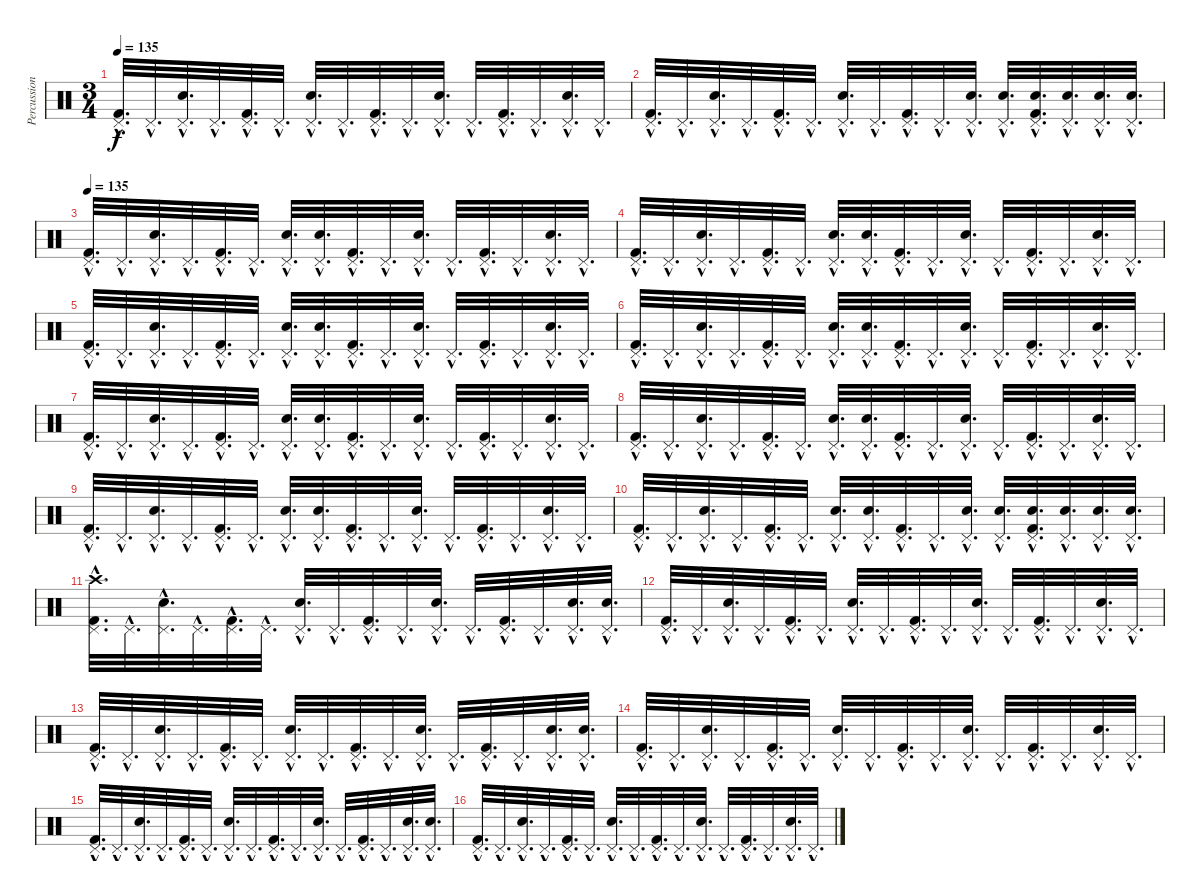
\track ("Percussion" "Percussion") {instrument percussion}
\staff {score}
\articulation defaults
\ts (3 4)
\tempo 135
\clef neutral
\ks c
("Kick (hit) 2"{hac} "Pedal Hi-Hat (hit)"{hac}).32{d dy f} "Pedal Hi-Hat (hit)"{hac}.32{d} ("Pedal Hi-Hat (hit)"{hac} "Electric Snare (hit)"{hac}).32{d} "Pedal Hi-Hat (hit)"{hac}.32{d} ("Kick (hit) 2"{hac} "Pedal Hi-Hat (hit)"{hac}).32{d} "Pedal Hi-Hat (hit)"{hac}.32{d} ("Pedal Hi-Hat (hit)"{hac} "Electric Snare (hit)"{hac}).32{d} "Pedal Hi-Hat (hit)"{hac}.32{d} ("Kick (hit) 2"{hac} "Pedal Hi-Hat (hit)"{hac}).32{d} "Pedal Hi-Hat (hit)"{hac}.32{d} ("Pedal Hi-Hat (hit)"{hac} "Electric Snare (hit)"{hac}).32{d} "Pedal Hi-Hat (hit)"{hac}.32{d} ("Kick (hit) 2"{hac} "Pedal Hi-Hat (hit)"{hac}).32{d} "Pedal Hi-Hat (hit)"{hac}.32{d} ("Pedal Hi-Hat (hit)"{hac} "Electric Snare (hit)"{hac}).32{d} "Pedal Hi-Hat (hit)"{hac}.32{d} |
("Kick (hit) 2"{hac} "Pedal Hi-Hat (hit)"{hac}).32{d} "Pedal Hi-Hat (hit)"{hac}.32{d} ("Pedal Hi-Hat (hit)"{hac} "Electric Snare (hit)"{hac}).32{d} "Pedal Hi-Hat (hit)"{hac}.32{d} ("Kick (hit) 2"{hac} "Pedal Hi-Hat (hit)"{hac}).32{d} "Pedal Hi-Hat (hit)"{hac}.32{d} ("Pedal Hi-Hat (hit)"{hac} "Electric Snare (hit)"{hac}).32{d} "Pedal Hi-Hat (hit)"{hac}.32{d} ("Kick (hit) 2"{hac} "Pedal Hi-Hat (hit)"{hac}).32{d} "Pedal Hi-Hat (hit)"{hac}.32{d} ("Pedal Hi-Hat (hit)"{hac} "Electric Snare (hit)"{hac}).32{d} ("Pedal Hi-Hat (hit)"{hac} "Electric Snare (hit)"{hac}).32{d} ("Kick (hit) 2"{hac} "Pedal Hi-Hat (hit)"{hac} "Electric Snare (hit)"{hac}).32{d} ("Pedal Hi-Hat (hit)"{hac} "Electric Snare (hit)"{hac}).32{d} ("Pedal Hi-Hat (hit)"{hac} "Electric Snare (hit)"{hac}).32{d} ("Pedal Hi-Hat (hit)"{hac} "Electric Snare (hit)"{hac}).32{d} |
\tempo 135
("Kick (hit) 2"{hac} "Pedal Hi-Hat (hit)"{hac}).32{d} "Pedal Hi-Hat (hit)"{hac}.32{d} ("Pedal Hi-Hat (hit)"{hac} "Electric Snare (hit)"{hac}).32{d} "Pedal Hi-Hat (hit)"{hac}.32{d} ("Kick (hit) 2"{hac} "Pedal Hi-Hat (hit)"{hac}).32{d} "Pedal Hi-Hat (hit)"{hac}.32{d} ("Pedal Hi-Hat (hit)"{hac} "Electric Snare (hit)"{hac}).32{d} ("Pedal Hi-Hat (hit)"{hac} "Electric Snare (hit)"{hac}).32{d} ("Kick (hit) 2"{hac} "Pedal Hi-Hat (hit)"{hac}).32{d} "Pedal Hi-Hat (hit)"{hac}.32{d} ("Pedal Hi-Hat (hit)"{hac} "Electric Snare (hit)"{hac}).32{d} "Pedal Hi-Hat (hit)"{hac}.32{d} ("Kick (hit) 2"{hac} "Pedal Hi-Hat (hit)"{hac}).32{d} "Pedal Hi-Hat (hit)"{hac}.32{d} ("Pedal Hi-Hat (hit)"{hac} "Electric Snare (hit)"{hac}).32{d} "Pedal Hi-Hat (hit)"{hac}.32{d} |
("Kick (hit) 2"{hac} "Pedal Hi-Hat (hit)"{hac}).32{d} "Pedal Hi-Hat (hit)"{hac}.32{d} ("Pedal Hi-Hat (hit)"{hac} "Electric Snare (hit)"{hac}).32{d} "Pedal Hi-Hat (hit)"{hac}.32{d} ("Kick (hit) 2"{hac} "Pedal Hi-Hat (hit)"{hac}).32{d} "Pedal Hi-Hat (hit)"{hac}.32{d} ("Pedal Hi-Hat (hit)"{hac} "Electric Snare (hit)"{hac}).32{d} ("Pedal Hi-Hat (hit)"{hac} "Electric Snare (hit)"{hac}).32{d} ("Kick (hit) 2"{hac} "Pedal Hi-Hat (hit)"{hac}).32{d} "Pedal Hi-Hat (hit)"{hac}.32{d} ("Pedal Hi-Hat (hit)"{hac} "Electric Snare (hit)"{hac}).32{d} "Pedal Hi-Hat (hit)"{hac}.32{d} ("Kick (hit) 2"{hac} "Pedal Hi-Hat (hit)"{hac}).32{d} "Pedal Hi-Hat (hit)"{hac}.32{d} ("Pedal Hi-Hat (hit)"{hac} "Electric Snare (hit)"{hac}).32{d} "Pedal Hi-Hat (hit)"{hac}.32{d} |
("Kick (hit) 2"{hac} "Pedal Hi-Hat (hit)"{hac}).32{d} "Pedal Hi-Hat (hit)"{hac}.32{d} ("Pedal Hi-Hat (hit)"{hac} "Electric Snare (hit)"{hac}).32{d} "Pedal Hi-Hat (hit)"{hac}.32{d} ("Kick (hit) 2"{hac} "Pedal Hi-Hat (hit)"{hac}).32{d} "Pedal Hi-Hat (hit)"{hac}.32{d} ("Pedal Hi-Hat (hit)"{hac} "Electric Snare (hit)"{hac}).32{d} ("Pedal Hi-Hat (hit)"{hac} "Electric Snare (hit)"{hac}).32{d} ("Kick (hit) 2"{hac} "Pedal Hi-Hat (hit)"{hac}).32{d} "Pedal Hi-Hat (hit)"{hac}.32{d} ("Pedal Hi-Hat (hit)"{hac} "Electric Snare (hit)"{hac}).32{d} "Pedal Hi-Hat (hit)"{hac}.32{d} ("Kick (hit) 2"{hac} "Pedal Hi-Hat (hit)"{hac}).32{d} "Pedal Hi-Hat (hit)"{hac}.32{d} ("Pedal Hi-Hat (hit)"{hac} "Electric Snare (hit)"{hac}).32{d} "Pedal Hi-Hat (hit)"{hac}.32{d} |
("Kick (hit) 2"{hac} "Pedal Hi-Hat (hit)"{hac}).32{d} "Pedal Hi-Hat (hit)"{hac}.32{d} ("Pedal Hi-Hat (hit)"{hac} "Electric Snare (hit)"{hac}).32{d} "Pedal Hi-Hat (hit)"{hac}.32{d} ("Kick (hit) 2"{hac} "Pedal Hi-Hat (hit)"{hac}).32{d} "Pedal Hi-Hat (hit)"{hac}.32{d} ("Pedal Hi-Hat (hit)"{hac} "Electric Snare (hit)"{hac}).32{d} ("Pedal Hi-Hat (hit)"{hac} "Electric Snare (hit)"{hac}).32{d} ("Kick (hit) 2"{hac} "Pedal Hi-Hat (hit)"{hac}).32{d} "Pedal Hi-Hat (hit)"{hac}.32{d} ("Pedal Hi-Hat (hit)"{hac} "Electric Snare (hit)"{hac}).32{d} "Pedal Hi-Hat (hit)"{hac}.32{d} ("Kick (hit) 2"{hac} "Pedal Hi-Hat (hit)"{hac}).32{d} "Pedal Hi-Hat (hit)"{hac}.32{d} ("Pedal Hi-Hat (hit)"{hac} "Electric Snare (hit)"{hac}).32{d} "Pedal Hi-Hat (hit)"{hac}.32{d} |
("Kick (hit) 2"{hac} "Pedal Hi-Hat (hit)"{hac}).32{d} "Pedal Hi-Hat (hit)"{hac}.32{d} ("Pedal Hi-Hat (hit)"{hac} "Electric Snare (hit)"{hac}).32{d} "Pedal Hi-Hat (hit)"{hac}.32{d} ("Kick (hit) 2"{hac} "Pedal Hi-Hat (hit)"{hac}).32{d} "Pedal Hi-Hat (hit)"{hac}.32{d} ("Pedal Hi-Hat (hit)"{hac} "Electric Snare (hit)"{hac}).32{d} ("Pedal Hi-Hat (hit)"{hac} "Electric Snare (hit)"{hac}).32{d} ("Kick (hit) 2"{hac} "Pedal Hi-Hat (hit)"{hac}).32{d} "Pedal Hi-Hat (hit)"{hac}.32{d} ("Pedal Hi-Hat (hit)"{hac} "Electric Snare (hit)"{hac}).32{d} "Pedal Hi-Hat (hit)"{hac}.32{d} ("Kick (hit) 2"{hac} "Pedal Hi-Hat (hit)"{hac}).32{d} "Pedal Hi-Hat (hit)"{hac}.32{d} ("Pedal Hi-Hat (hit)"{hac} "Electric Snare (hit)"{hac}).32{d} "Pedal Hi-Hat (hit)"{hac}.32{d} |
("Kick (hit) 2"{hac} "Pedal Hi-Hat (hit)"{hac}).32{d} "Pedal Hi-Hat (hit)"{hac}.32{d} ("Pedal Hi-Hat (hit)"{hac} "Electric Snare (hit)"{hac}).32{d} "Pedal Hi-Hat (hit)"{hac}.32{d} ("Kick (hit) 2"{hac} "Pedal Hi-Hat (hit)"{hac}).32{d} "Pedal Hi-Hat (hit)"{hac}.32{d} ("Pedal Hi-Hat (hit)"{hac} "Electric Snare (hit)"{hac}).32{d} ("Pedal Hi-Hat (hit)"{hac} "Electric Snare (hit)"{hac}).32{d} ("Kick (hit) 2"{hac} "Pedal Hi-Hat (hit)"{hac}).32{d} "Pedal Hi-Hat (hit)"{hac}.32{d} ("Pedal Hi-Hat (hit)"{hac} "Electric Snare (hit)"{hac}).32{d} "Pedal Hi-Hat (hit)"{hac}.32{d} ("Kick (hit) 2"{hac} "Pedal Hi-Hat (hit)"{hac}).32{d} "Pedal Hi-Hat (hit)"{hac}.32{d} ("Pedal Hi-Hat (hit)"{hac} "Electric Snare (hit)"{hac}).32{d} "Pedal Hi-Hat (hit)"{hac}.32{d} |
("Kick (hit) 2"{hac} "Pedal Hi-Hat (hit)"{hac}).32{d} "Pedal Hi-Hat (hit)"{hac}.32{d} ("Pedal Hi-Hat (hit)"{hac} "Electric Snare (hit)"{hac}).32{d} "Pedal Hi-Hat (hit)"{hac}.32{d} ("Kick (hit) 2"{hac} "Pedal Hi-Hat (hit)"{hac}).32{d} "Pedal Hi-Hat (hit)"{hac}.32{d} ("Pedal Hi-Hat (hit)"{hac} "Electric Snare (hit)"{hac}).32{d} ("Pedal Hi-Hat (hit)"{hac} "Electric Snare (hit)"{hac}).32{d} ("Kick (hit) 2"{hac} "Pedal Hi-Hat (hit)"{hac}).32{d} "Pedal Hi-Hat (hit)"{hac}.32{d} ("Pedal Hi-Hat (hit)"{hac} "Electric Snare (hit)"{hac}).32{d} "Pedal Hi-Hat (hit)"{hac}.32{d} ("Kick (hit) 2"{hac} "Pedal Hi-Hat (hit)"{hac}).32{d} "Pedal Hi-Hat (hit)"{hac}.32{d} ("Pedal Hi-Hat (hit)"{hac} "Electric Snare (hit)"{hac}).32{d} "Pedal Hi-Hat (hit)"{hac}.32{d} |
("Kick (hit) 2"{hac} "Pedal Hi-Hat (hit)"{hac}).32{d} "Pedal Hi-Hat (hit)"{hac}.32{d} ("Pedal Hi-Hat (hit)"{hac} "Electric Snare (hit)"{hac}).32{d} "Pedal Hi-Hat (hit)"{hac}.32{d} ("Kick (hit) 2"{hac} "Pedal Hi-Hat (hit)"{hac}).32{d} "Pedal Hi-Hat (hit)"{hac}.32{d} ("Pedal Hi-Hat (hit)"{hac} "Electric Snare (hit)"{hac}).32{d} ("Pedal Hi-Hat (hit)"{hac} "Electric Snare (hit)"{hac}).32{d} ("Kick (hit) 2"{hac} "Pedal Hi-Hat (hit)"{hac}).32{d} "Pedal Hi-Hat (hit)"{hac}.32{d} ("Pedal Hi-Hat (hit)"{hac} "Electric Snare (hit)"{hac}).32{d} ("Pedal Hi-Hat (hit)"{hac} "Electric Snare (hit)"{hac}).32{d} ("Kick (hit) 2"{hac} "Pedal Hi-Hat (hit)"{hac} "Electric Snare (hit)"{hac}).32{d} ("Pedal Hi-Hat (hit)"{hac} "Electric Snare (hit)"{hac}).32{d} ("Pedal Hi-Hat (hit)"{hac} "Electric Snare (hit)"{hac}).32{d} ("Pedal Hi-Hat (hit)"{hac} "Electric Snare (hit)"{hac}).32{d} |
("Kick (hit) 2"{hac} "Pedal Hi-Hat (hit)"{hac} "Crash high (hit)"{hac}).32{d} "Pedal Hi-Hat (hit)"{hac}.32{d} ("Pedal Hi-Hat (hit)"{hac} "Electric Snare (hit)"{hac}).32{d} "Pedal Hi-Hat (hit)"{hac}.32{d} ("Kick (hit) 2"{hac} "Pedal Hi-Hat (hit)"{hac}).32{d} "Pedal Hi-Hat (hit)"{hac}.32{d} ("Pedal Hi-Hat (hit)"{hac} "Electric Snare (hit)"{hac}).32{d} "Pedal Hi-Hat (hit)"{hac}.32{d} ("Kick (hit) 2"{hac} "Pedal Hi-Hat (hit)"{hac}).32{d} "Pedal Hi-Hat (hit)"{hac}.32{d} ("Pedal Hi-Hat (hit)"{hac} "Electric Snare (hit)"{hac}).32{d} "Pedal Hi-Hat (hit)"{hac}.32{d} ("Kick (hit) 2"{hac} "Pedal Hi-Hat (hit)"{hac}).32{d} "Pedal Hi-Hat (hit)"{hac}.32{d} ("Pedal Hi-Hat (hit)"{hac} "Electric Snare (hit)"{hac}).32{d} ("Pedal Hi-Hat (hit)"{hac} "Electric Snare (hit)"{hac}).32{d} |
("Kick (hit) 2"{hac} "Pedal Hi-Hat (hit)"{hac}).32{d} "Pedal Hi-Hat (hit)"{hac}.32{d} ("Pedal Hi-Hat (hit)"{hac} "Electric Snare (hit)"{hac}).32{d} "Pedal Hi-Hat (hit)"{hac}.32{d} ("Kick (hit) 2"{hac} "Pedal Hi-Hat (hit)"{hac}).32{d} "Pedal Hi-Hat (hit)"{hac}.32{d} ("Pedal Hi-Hat (hit)"{hac} "Electric Snare (hit)"{hac}).32{d} "Pedal Hi-Hat (hit)"{hac}.32{d} ("Kick (hit) 2"{hac} "Pedal Hi-Hat (hit)"{hac}).32{d} "Pedal Hi-Hat (hit)"{hac}.32{d} ("Pedal Hi-Hat (hit)"{hac} "Electric Snare (hit)"{hac}).32{d} "Pedal Hi-Hat (hit)"{hac}.32{d} ("Kick (hit) 2"{hac} "Pedal Hi-Hat (hit)"{hac}).32{d} "Pedal Hi-Hat (hit)"{hac}.32{d} ("Pedal Hi-Hat (hit)"{hac} "Electric Snare (hit)"{hac}).32{d} "Pedal Hi-Hat (hit)"{hac}.32{d} |
("Kick (hit) 2"{hac} "Pedal Hi-Hat (hit)"{hac}).32{d} "Pedal Hi-Hat (hit)"{hac}.32{d} ("Pedal Hi-Hat (hit)"{hac} "Electric Snare (hit)"{hac}).32{d} "Pedal Hi-Hat (hit)"{hac}.32{d} ("Kick (hit) 2"{hac} "Pedal Hi-Hat (hit)"{hac}).32{d} "Pedal Hi-Hat (hit)"{hac}.32{d} ("Pedal Hi-Hat (hit)"{hac} "Electric Snare (hit)"{hac}).32{d} "Pedal Hi-Hat (hit)"{hac}.32{d} ("Kick (hit) 2"{hac} "Pedal Hi-Hat (hit)"{hac}).32{d} "Pedal Hi-Hat (hit)"{hac}.32{d} ("Pedal Hi-Hat (hit)"{hac} "Electric Snare (hit)"{hac}).32{d} "Pedal Hi-Hat (hit)"{hac}.32{d} ("Kick (hit) 2"{hac} "Pedal Hi-Hat (hit)"{hac}).32{d} "Pedal Hi-Hat (hit)"{hac}.32{d} ("Pedal Hi-Hat (hit)"{hac} "Electric Snare (hit)"{hac}).32{d} ("Pedal Hi-Hat (hit)"{hac} "Electric Snare (hit)"{hac}).32{d} |
("Kick (hit) 2"{hac} "Pedal Hi-Hat (hit)"{hac}).32{d} "Pedal Hi-Hat (hit)"{hac}.32{d} ("Pedal Hi-Hat (hit)"{hac} "Electric Snare (hit)"{hac}).32{d} "Pedal Hi-Hat (hit)"{hac}.32{d} ("Kick (hit) 2"{hac} "Pedal Hi-Hat (hit)"{hac}).32{d} "Pedal Hi-Hat (hit)"{hac}.32{d} ("Pedal Hi-Hat (hit)"{hac} "Electric Snare (hit)"{hac}).32{d} "Pedal Hi-Hat (hit)"{hac}.32{d} ("Kick (hit) 2"{hac} "Pedal Hi-Hat (hit)"{hac}).32{d} "Pedal Hi-Hat (hit)"{hac}.32{d} ("Pedal Hi-Hat (hit)"{hac} "Electric Snare (hit)"{hac}).32{d} "Pedal Hi-Hat (hit)"{hac}.32{d} ("Kick (hit) 2"{hac} "Pedal Hi-Hat (hit)"{hac}).32{d} "Pedal Hi-Hat (hit)"{hac}.32{d} ("Pedal Hi-Hat (hit)"{hac} "Electric Snare (hit)"{hac}).32{d} "Pedal Hi-Hat (hit)"{hac}.32{d} |
("Kick (hit) 2"{hac} "Pedal Hi-Hat (hit)"{hac}).32{d} "Pedal Hi-Hat (hit)"{hac}.32{d} ("Pedal Hi-Hat (hit)"{hac} "Electric Snare (hit)"{hac}).32{d} "Pedal Hi-Hat (hit)"{hac}.32{d} ("Kick (hit) 2"{hac} "Pedal Hi-Hat (hit)"{hac}).32{d} "Pedal Hi-Hat (hit)"{hac}.32{d} ("Pedal Hi-Hat (hit)"{hac} "Electric Snare (hit)"{hac}).32{d} "Pedal Hi-Hat (hit)"{hac}.32{d} ("Kick (hit) 2"{hac} "Pedal Hi-Hat (hit)"{hac}).32{d} "Pedal Hi-Hat (hit)"{hac}.32{d} ("Pedal Hi-Hat (hit)"{hac} "Electric Snare (hit)"{hac}).32{d} "Pedal Hi-Hat (hit)"{hac}.32{d} ("Kick (hit) 2"{hac} "Pedal Hi-Hat (hit)"{hac}).32{d} "Pedal Hi-Hat (hit)"{hac}.32{d} ("Pedal Hi-Hat (hit)"{hac} "Electric Snare (hit)"{hac}).32{d} ("Pedal Hi-Hat (hit)"{hac} "Electric Snare (hit)"{hac}).32{d} |
("Kick (hit) 2"{hac} "Pedal Hi-Hat (hit)"{hac}).32{d} "Pedal Hi-Hat (hit)"{hac}.32{d} ("Pedal Hi-Hat (hit)"{hac} "Electric Snare (hit)"{hac}).32{d} "Pedal Hi-Hat (hit)"{hac}.32{d} ("Kick (hit) 2"{hac} "Pedal Hi-Hat (hit)"{hac}).32{d} "Pedal Hi-Hat (hit)"{hac}.32{d} ("Pedal Hi-Hat (hit)"{hac} "Electric Snare (hit)"{hac}).32{d} "Pedal Hi-Hat (hit)"{hac}.32{d} ("Kick (hit) 2"{hac} "Pedal Hi-Hat (hit)"{hac}).32{d} "Pedal Hi-Hat (hit)"{hac}.32{d} ("Pedal Hi-Hat (hit)"{hac} "Electric Snare (hit)"{hac}).32{d} "Pedal Hi-Hat (hit)"{hac}.32{d} ("Kick (hit) 2"{hac} "Pedal Hi-Hat (hit)"{hac}).32{d} "Pedal Hi-Hat (hit)"{hac}.32{d} ("Pedal Hi-Hat (hit)"{hac} "Electric Snare (hit)"{hac}).32{d} "Pedal Hi-Hat (hit)"{hac}.32{d}
